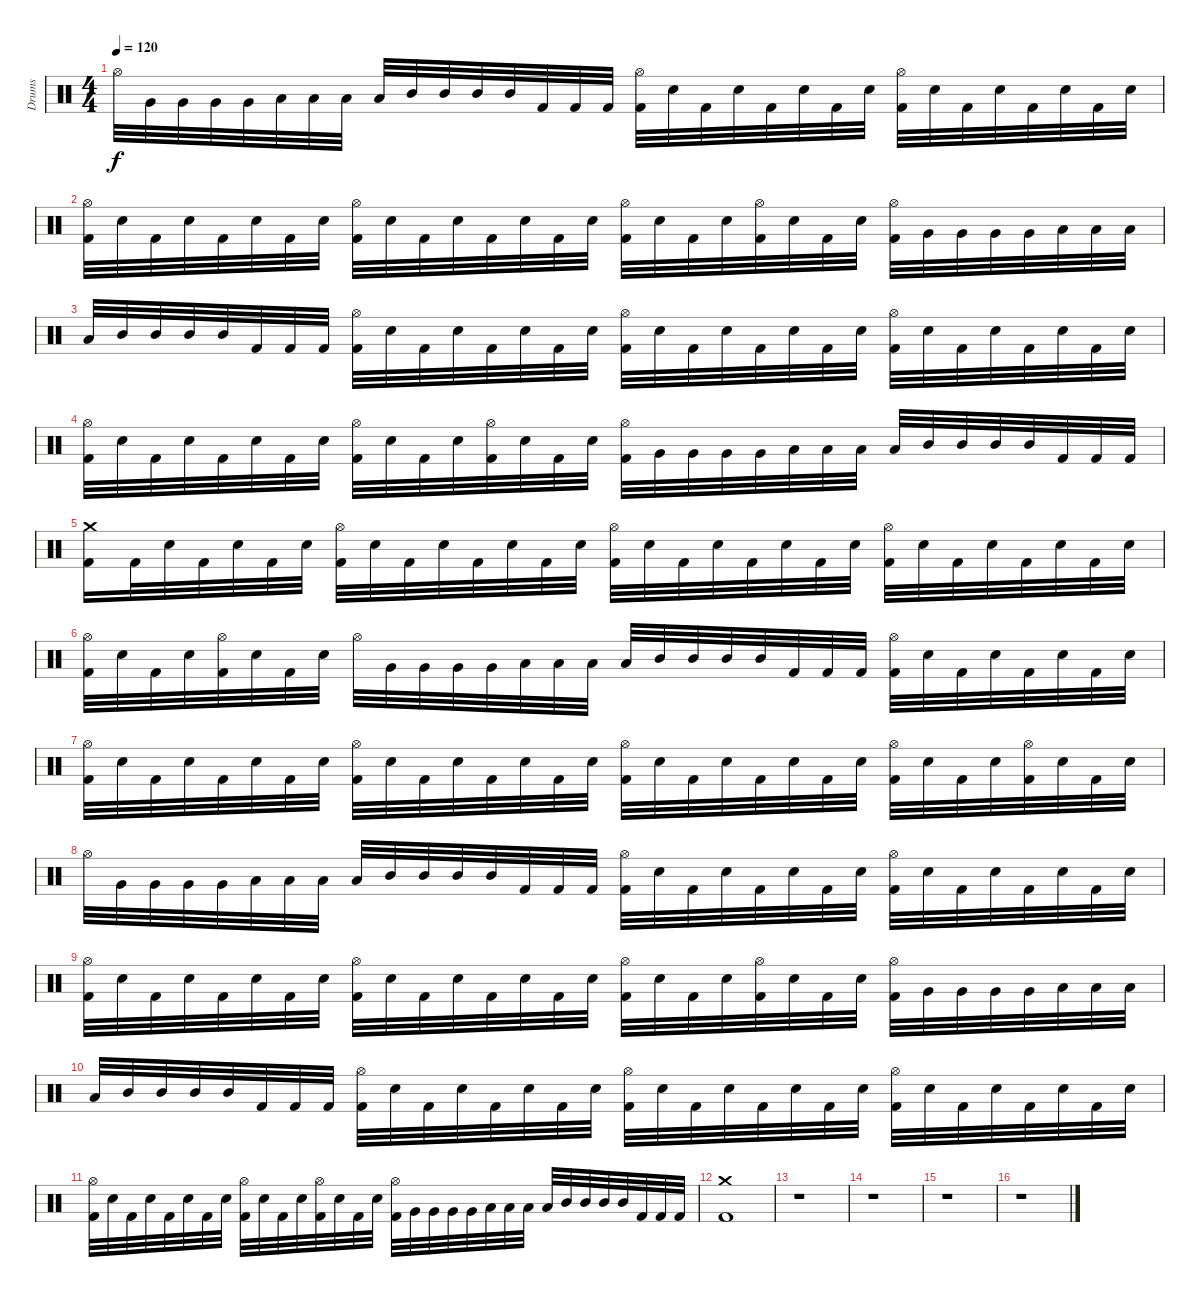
\track ("Drums" "Drums") {instrument percussion}
\staff {score}
\articulation defaults
\ts (4 4)
\tempo 120
\clef neutral
\ks c "Hi-Hat (open)".32{dy f} "Very Low Tom (hit)".32 "Very Low Tom (hit)".32 "Very Low Tom (hit)".32 "Very Low Tom (hit)".32 "Low Tom (hit)".32 "Low Tom (hit)".32 "Low Tom (hit)".32 "Low Tom (hit)".32 "Mid Tom (hit)".32 "Mid Tom (hit)".32 "Mid Tom (hit)".32 "Mid Tom (hit)".32 "Kick (hit) 2".32 "Kick (hit) 2".32 "Kick (hit) 2".32
("Kick (hit) 2" "Hi-Hat (open)").32 "Electric Snare (hit)".32 "Kick (hit) 2".32 "Electric Snare (hit)".32 "Kick (hit) 2".32 "Electric Snare (hit)".32 "Kick (hit) 2".32 "Electric Snare (hit)".32 ("Kick (hit) 2" "Hi-Hat (open)").32 "Electric Snare (hit)".32 "Kick (hit) 2".32 "Electric Snare (hit)".32 "Kick (hit) 2".32 "Electric Snare (hit)".32 "Kick (hit) 2".32 "Electric Snare (hit)".32 |
("Kick (hit) 2" "Hi-Hat (open)").32 "Electric Snare (hit)".32 "Kick (hit) 2".32 "Electric Snare (hit)".32 "Kick (hit) 2".32 "Electric Snare (hit)".32 "Kick (hit) 2".32 "Electric Snare (hit)".32 ("Kick (hit) 2" "Hi-Hat (open)").32 "Electric Snare (hit)".32 "Kick (hit) 2".32 "Electric Snare (hit)".32 "Kick (hit) 2".32 "Electric Snare (hit)".32 "Kick (hit) 2".32 "Electric Snare (hit)".32 ("Kick (hit) 2" "Hi-Hat (open)").32 "Electric Snare (hit)".32 "Kick (hit) 2".32 "Electric Snare (hit)".32 ("Kick (hit) 2" "Hi-Hat (open)").32 "Electric Snare (hit)".32 "Kick (hit) 2".32 "Electric Snare (hit)".32 ("Kick (hit) 2" "Hi-Hat (open)").32 "Very Low Tom (hit)".32 "Very Low Tom (hit)".32 "Very Low Tom (hit)".32 "Very Low Tom (hit)".32 "Low Tom (hit)".32 "Low Tom (hit)".32 "Low Tom (hit)".32 |
"Low Tom (hit)".32 "Mid Tom (hit)".32 "Mid Tom (hit)".32 "Mid Tom (hit)".32 "Mid Tom (hit)".32 "Kick (hit) 2".32 "Kick (hit) 2".32 "Kick (hit) 2".32 ("Kick (hit) 2" "Hi-Hat (open)").32 "Electric Snare (hit)".32 "Kick (hit) 2".32 "Electric Snare (hit)".32 "Kick (hit) 2".32 "Electric Snare (hit)".32 "Kick (hit) 2".32 "Electric Snare (hit)".32 ("Kick (hit) 2" "Hi-Hat (open)").32 "Electric Snare (hit)".32 "Kick (hit) 2".32 "Electric Snare (hit)".32 "Kick (hit) 2".32 "Electric Snare (hit)".32 "Kick (hit) 2".32 "Electric Snare (hit)".32 ("Kick (hit) 2" "Hi-Hat (open)").32 "Electric Snare (hit)".32 "Kick (hit) 2".32 "Electric Snare (hit)".32 "Kick (hit) 2".32 "Electric Snare (hit)".32 "Kick (hit) 2".32 "Electric Snare (hit)".32 |
("Kick (hit) 2" "Hi-Hat (open)").32 "Electric Snare (hit)".32 "Kick (hit) 2".32 "Electric Snare (hit)".32 "Kick (hit) 2".32 "Electric Snare (hit)".32 "Kick (hit) 2".32 "Electric Snare (hit)".32 ("Kick (hit) 2" "Hi-Hat (open)").32 "Electric Snare (hit)".32 "Kick (hit) 2".32 "Electric Snare (hit)".32 ("Kick (hit) 2" "Hi-Hat (open)").32 "Electric Snare (hit)".32 "Kick (hit) 2".32 "Electric Snare (hit)".32 ("Kick (hit) 2" "Hi-Hat (open)").32 "Very Low Tom (hit)".32 "Very Low Tom (hit)".32 "Very Low Tom (hit)".32 "Very Low Tom (hit)".32 "Low Tom (hit)".32 "Low Tom (hit)".32 "Low Tom (hit)".32 "Low Tom (hit)".32 "Mid Tom (hit)".32 "Mid Tom (hit)".32 "Mid Tom (hit)".32 "Mid Tom (hit)".32 "Kick (hit) 2".32 "Kick (hit) 2".32 "Kick (hit) 2".32 |
("Kick (hit) 2" "Crash medium (hit)").16 "Kick (hit) 2".32 "Electric Snare (hit)".32 "Kick (hit) 2".32 "Electric Snare (hit)".32 "Kick (hit) 2".32 "Electric Snare (hit)".32 ("Kick (hit) 2" "Hi-Hat (open)").32 "Electric Snare (hit)".32 "Kick (hit) 2".32 "Electric Snare (hit)".32 "Kick (hit) 2".32 "Electric Snare (hit)".32 "Kick (hit) 2".32 "Electric Snare (hit)".32 ("Kick (hit) 2" "Hi-Hat (open)").32 "Electric Snare (hit)".32 "Kick (hit) 2".32 "Electric Snare (hit)".32 "Kick (hit) 2".32 "Electric Snare (hit)".32 "Kick (hit) 2".32 "Electric Snare (hit)".32 ("Kick (hit) 2" "Hi-Hat (open)").32 "Electric Snare (hit)".32 "Kick (hit) 2".32 "Electric Snare (hit)".32 "Kick (hit) 2".32 "Electric Snare (hit)".32 "Kick (hit) 2".32 "Electric Snare (hit)".32 |
("Kick (hit) 2" "Hi-Hat (open)").32 "Electric Snare (hit)".32 "Kick (hit) 2".32 "Electric Snare (hit)".32 ("Kick (hit) 2" "Hi-Hat (open)").32 "Electric Snare (hit)".32 "Kick (hit) 2".32 "Electric Snare (hit)".32 "Hi-Hat (open)".32 "Very Low Tom (hit)".32 "Very Low Tom (hit)".32 "Very Low Tom (hit)".32 "Very Low Tom (hit)".32 "Low Tom (hit)".32 "Low Tom (hit)".32 "Low Tom (hit)".32 "Low Tom (hit)".32 "Mid Tom (hit)".32 "Mid Tom (hit)".32 "Mid Tom (hit)".32 "Mid Tom (hit)".32 "Kick (hit) 2".32 "Kick (hit) 2".32 "Kick (hit) 2".32 ("Kick (hit) 2" "Hi-Hat (open)").32 "Electric Snare (hit)".32 "Kick (hit) 2".32 "Electric Snare (hit)".32 "Kick (hit) 2".32 "Electric Snare (hit)".32 "Kick (hit) 2".32 "Electric Snare (hit)".32 |
("Kick (hit) 2" "Hi-Hat (open)").32 "Electric Snare (hit)".32 "Kick (hit) 2".32 "Electric Snare (hit)".32 "Kick (hit) 2".32 "Electric Snare (hit)".32 "Kick (hit) 2".32 "Electric Snare (hit)".32 ("Kick (hit) 2" "Hi-Hat (open)").32 "Electric Snare (hit)".32 "Kick (hit) 2".32 "Electric Snare (hit)".32 "Kick (hit) 2".32 "Electric Snare (hit)".32 "Kick (hit) 2".32 "Electric Snare (hit)".32 ("Kick (hit) 2" "Hi-Hat (open)").32 "Electric Snare (hit)".32 "Kick (hit) 2".32 "Electric Snare (hit)".32 "Kick (hit) 2".32 "Electric Snare (hit)".32 "Kick (hit) 2".32 "Electric Snare (hit)".32 ("Kick (hit) 2" "Hi-Hat (open)").32 "Electric Snare (hit)".32 "Kick (hit) 2".32 "Electric Snare (hit)".32 ("Kick (hit) 2" "Hi-Hat (open)").32 "Electric Snare (hit)".32 "Kick (hit) 2".32 "Electric Snare (hit)".32 |
"Hi-Hat (open)".32 "Very Low Tom (hit)".32 "Very Low Tom (hit)".32 "Very Low Tom (hit)".32 "Very Low Tom (hit)".32 "Low Tom (hit)".32 "Low Tom (hit)".32 "Low Tom (hit)".32 "Low Tom (hit)".32 "Mid Tom (hit)".32 "Mid Tom (hit)".32 "Mid Tom (hit)".32 "Mid Tom (hit)".32 "Kick (hit) 2".32 "Kick (hit) 2".32 "Kick (hit) 2".32 ("Kick (hit) 2" "Hi-Hat (open)").32 "Electric Snare (hit)".32 "Kick (hit) 2".32 "Electric Snare (hit)".32 "Kick (hit) 2".32 "Electric Snare (hit)".32 "Kick (hit) 2".32 "Electric Snare (hit)".32 ("Kick (hit) 2" "Hi-Hat (open)").32 "Electric Snare (hit)".32 "Kick (hit) 2".32 "Electric Snare (hit)".32 "Kick (hit) 2".32 "Electric Snare (hit)".32 "Kick (hit) 2".32 "Electric Snare (hit)".32 |
("Kick (hit) 2" "Hi-Hat (open)").32 "Electric Snare (hit)".32 "Kick (hit) 2".32 "Electric Snare (hit)".32 "Kick (hit) 2".32 "Electric Snare (hit)".32 "Kick (hit) 2".32 "Electric Snare (hit)".32 ("Kick (hit) 2" "Hi-Hat (open)").32 "Electric Snare (hit)".32 "Kick (hit) 2".32 "Electric Snare (hit)".32 "Kick (hit) 2".32 "Electric Snare (hit)".32 "Kick (hit) 2".32 "Electric Snare (hit)".32 ("Kick (hit) 2" "Hi-Hat (open)").32 "Electric Snare (hit)".32 "Kick (hit) 2".32 "Electric Snare (hit)".32 ("Kick (hit) 2" "Hi-Hat (open)").32 "Electric Snare (hit)".32 "Kick (hit) 2".32 "Electric Snare (hit)".32 ("Kick (hit) 2" "Hi-Hat (open)").32 "Very Low Tom (hit)".32 "Very Low Tom (hit)".32 "Very Low Tom (hit)".32 "Very Low Tom (hit)".32 "Low Tom (hit)".32 "Low Tom (hit)".32 "Low Tom (hit)".32 |
"Low Tom (hit)".32 "Mid Tom (hit)".32 "Mid Tom (hit)".32 "Mid Tom (hit)".32 "Mid Tom (hit)".32 "Kick (hit) 2".32 "Kick (hit) 2".32 "Kick (hit) 2".32 ("Kick (hit) 2" "Hi-Hat (open)").32 "Electric Snare (hit)".32 "Kick (hit) 2".32 "Electric Snare (hit)".32 "Kick (hit) 2".32 "Electric Snare (hit)".32 "Kick (hit) 2".32 "Electric Snare (hit)".32 ("Kick (hit) 2" "Hi-Hat (open)").32 "Electric Snare (hit)".32 "Kick (hit) 2".32 "Electric Snare (hit)".32 "Kick (hit) 2".32 "Electric Snare (hit)".32 "Kick (hit) 2".32 "Electric Snare (hit)".32 ("Kick (hit) 2" "Hi-Hat (open)").32 "Electric Snare (hit)".32 "Kick (hit) 2".32 "Electric Snare (hit)".32 "Kick (hit) 2".32 "Electric Snare (hit)".32 "Kick (hit) 2".32 "Electric Snare (hit)".32 |
("Kick (hit) 2" "Hi-Hat (open)").32 "Electric Snare (hit)".32 "Kick (hit) 2".32 "Electric Snare (hit)".32 "Kick (hit) 2".32 "Electric Snare (hit)".32 "Kick (hit) 2".32 "Electric Snare (hit)".32 ("Kick (hit) 2" "Hi-Hat (open)").32 "Electric Snare (hit)".32 "Kick (hit) 2".32 "Electric Snare (hit)".32 ("Kick (hit) 2" "Hi-Hat (open)").32 "Electric Snare (hit)".32 "Kick (hit) 2".32 "Electric Snare (hit)".32 ("Kick (hit) 2" "Hi-Hat (open)").32 "Very Low Tom (hit)".32 "Very Low Tom (hit)".32 "Very Low Tom (hit)".32 "Very Low Tom (hit)".32 "Low Tom (hit)".32 "Low Tom (hit)".32 "Low Tom (hit)".32 "Low Tom (hit)".32 "Mid Tom (hit)".32 "Mid Tom (hit)".32 "Mid Tom (hit)".32 "Mid Tom (hit)".32 "Kick (hit) 2".32 "Kick (hit) 2".32 "Kick (hit) 2".32 |
("Kick (hit) 2" "Crash medium (hit)").1 |
r.1 |
r.1 |
r.1 |
r.1
